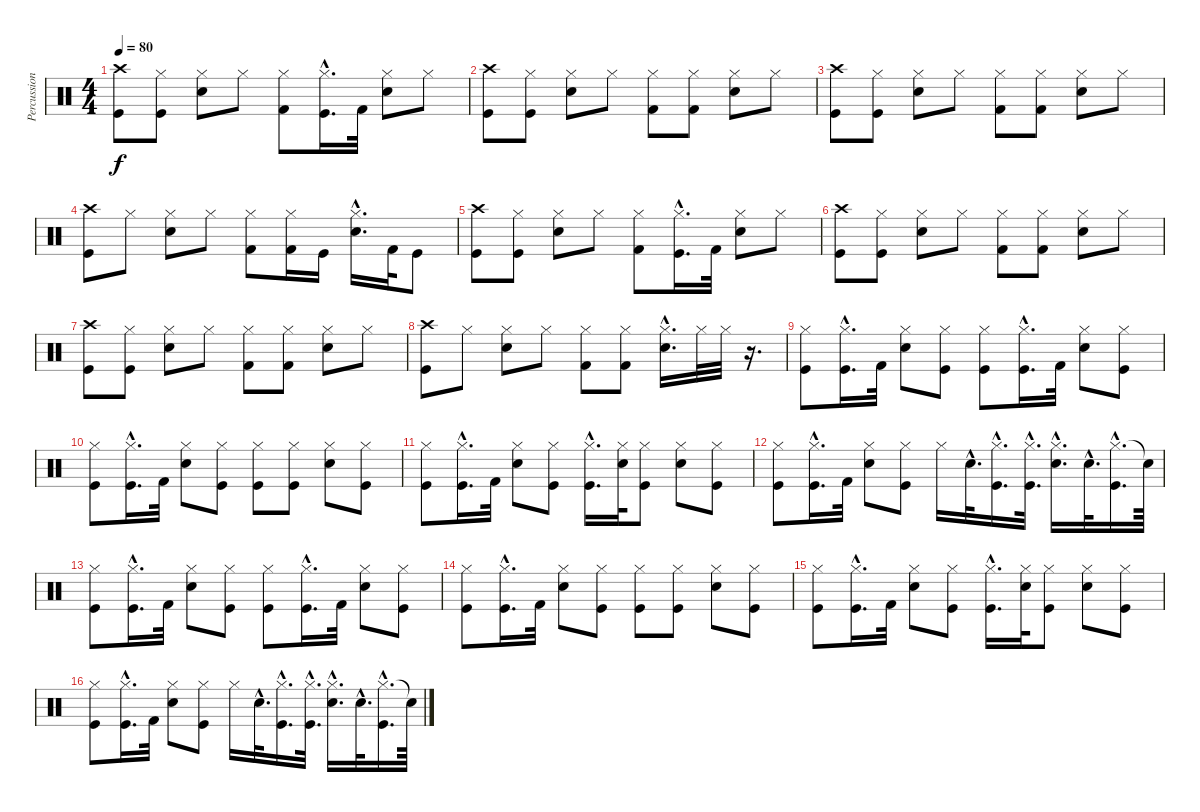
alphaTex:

\track ("Percussions" "Percussion") {instrument percussion}
\staff {score}
\articulation defaults
\ts (4 4)
\tempo 80
\clef neutral
\ks c
("Crash high (hit)" "Kick (hit)").8{dy f} ("Hi-Hat (closed)" "Kick (hit)").8 ("Hi-Hat (closed)" "Snare (hit) 2").8 "Hi-Hat (closed)".8 ("Hi-Hat (closed)" "Kick (hit) 2").8 ("Hi-Hat (closed)"{hac} "Kick (hit)"{hac}).16{d} "Kick (hit) 2".32 ("Hi-Hat (closed)" "Snare (hit) 2").8 "Hi-Hat (closed)".8 |
("Crash high (hit)" "Kick (hit)").8 ("Hi-Hat (closed)" "Kick (hit)").8 ("Hi-Hat (closed)" "Snare (hit) 2").8 "Hi-Hat (closed)".8 ("Hi-Hat (closed)" "Kick (hit) 2").8 ("Hi-Hat (closed)" "Kick (hit) 2").8 ("Hi-Hat (closed)" "Snare (hit) 2").8 "Hi-Hat (closed)".8 |
("Crash high (hit)" "Kick (hit)").8 ("Hi-Hat (closed)" "Kick (hit)").8 ("Hi-Hat (closed)" "Snare (hit) 2").8 "Hi-Hat (closed)".8 ("Hi-Hat (closed)" "Kick (hit) 2").8 ("Hi-Hat (closed)" "Kick (hit) 2").8 ("Hi-Hat (closed)" "Snare (hit) 2").8 "Hi-Hat (closed)".8 |
("Crash high (hit)" "Kick (hit)").8 "Hi-Hat (closed)".8 ("Hi-Hat (closed)" "Snare (hit) 2").8 "Hi-Hat (closed)".8 ("Hi-Hat (closed)" "Kick (hit) 2").8 ("Hi-Hat (closed)" "Kick (hit) 2").16 "Kick (hit)".16 ("Hi-Hat (closed)"{hac} "Snare (hit) 2"{hac}).16{d} "Kick (hit) 2".32 "Kick (hit)".8 |
("Crash high (hit)" "Kick (hit)").8 ("Hi-Hat (closed)" "Kick (hit)").8 ("Hi-Hat (closed)" "Snare (hit) 2").8 "Hi-Hat (closed)".8 ("Hi-Hat (closed)" "Kick (hit) 2").8 ("Hi-Hat (closed)"{hac} "Kick (hit)"{hac}).16{d} "Kick (hit) 2".32 ("Hi-Hat (closed)" "Snare (hit) 2").8 "Hi-Hat (closed)".8 |
("Crash high (hit)" "Kick (hit)").8 ("Hi-Hat (closed)" "Kick (hit)").8 ("Hi-Hat (closed)" "Snare (hit) 2").8 "Hi-Hat (closed)".8 ("Hi-Hat (closed)" "Kick (hit) 2").8 ("Hi-Hat (closed)" "Kick (hit) 2").8 ("Hi-Hat (closed)" "Snare (hit) 2").8 "Hi-Hat (closed)".8 |
("Crash high (hit)" "Kick (hit)").8 ("Hi-Hat (closed)" "Kick (hit)").8 ("Hi-Hat (closed)" "Snare (hit) 2").8 "Hi-Hat (closed)".8 ("Hi-Hat (closed)" "Kick (hit) 2").8 ("Hi-Hat (closed)" "Kick (hit) 2").8 ("Hi-Hat (closed)" "Snare (hit) 2").8 "Hi-Hat (closed)".8 |
("Crash high (hit)" "Kick (hit)").8 "Hi-Hat (closed)".8 ("Hi-Hat (closed)" "Snare (hit) 2").8 "Hi-Hat (closed)".8 ("Hi-Hat (closed)" "Kick (hit) 2").8 ("Hi-Hat (closed)" "Kick (hit) 2").8 ("Hi-Hat (closed)"{hac} "Snare (hit) 2"{hac}).16{d} "Hi-Hat (closed)".32 "Hi-Hat (closed)".32 r.16{d} |
("Hi-Hat (closed)" "Kick (hit)").8 ("Hi-Hat (closed)"{hac} "Kick (hit)"{hac}).16{d} "Kick (hit) 2".32 ("Hi-Hat (closed)" "Snare (hit) 2").8 ("Hi-Hat (closed)" "Kick (hit)").8 ("Hi-Hat (closed)" "Kick (hit)").8 ("Hi-Hat (closed)"{hac} "Kick (hit)"{hac}).16{d} "Kick (hit) 2".32 ("Hi-Hat (closed)" "Snare (hit) 2").8 ("Hi-Hat (closed)" "Kick (hit)").8 |
("Hi-Hat (closed)" "Kick (hit)").8 ("Hi-Hat (closed)"{hac} "Kick (hit)"{hac}).16{d} "Kick (hit) 2".32 ("Hi-Hat (closed)" "Snare (hit) 2").8 ("Hi-Hat (closed)" "Kick (hit)").8 ("Hi-Hat (closed)" "Kick (hit)").8 ("Hi-Hat (closed)" "Kick (hit)").8 ("Hi-Hat (closed)" "Snare (hit) 2").8 ("Hi-Hat (closed)" "Kick (hit)").8 |
("Hi-Hat (closed)" "Kick (hit)").8 ("Hi-Hat (closed)"{hac} "Kick (hit)"{hac}).16{d} "Kick (hit) 2".32 ("Hi-Hat (closed)" "Snare (hit) 2").8 ("Hi-Hat (closed)" "Kick (hit)").8 ("Hi-Hat (closed)"{hac} "Kick (hit)"{hac}).16{d} ("Hi-Hat (closed)" "Snare (hit) 2").32 ("Hi-Hat (closed)" "Kick (hit)").8 ("Hi-Hat (closed)" "Snare (hit) 2").8 ("Hi-Hat (closed)" "Kick (hit)").8 |
("Hi-Hat (closed)" "Kick (hit)").8 ("Hi-Hat (closed)"{hac} "Kick (hit)"{hac}).16{d} "Kick (hit) 2".32 ("Hi-Hat (closed)" "Snare (hit) 2").8 ("Hi-Hat (closed)" "Kick (hit)").8 "Hi-Hat (closed)".16 "Snare (hit) 2"{hac}.32{d} ("Hi-Hat (closed)"{hac} "Kick (hit)"{hac}).16{d} ("Hi-Hat (closed)"{hac} "Kick (hit)"{hac}).32{d} ("Hi-Hat (closed)"{hac} "Snare (hit) 2"{hac}).16{d} "Snare (hit) 2"{hac}.32{d} ("Hi-Hat (closed)"{hac} "Kick (hit)"{hac}).16{d} "Snare (hit)"{t}.64 |
("Hi-Hat (closed)" "Kick (hit)").8 ("Hi-Hat (closed)"{hac} "Kick (hit)"{hac}).16{d} "Kick (hit) 2".32 ("Hi-Hat (closed)" "Snare (hit) 2").8 ("Hi-Hat (closed)" "Kick (hit)").8 ("Hi-Hat (closed)" "Kick (hit)").8 ("Hi-Hat (closed)"{hac} "Kick (hit)"{hac}).16{d} "Kick (hit) 2".32 ("Hi-Hat (closed)" "Snare (hit) 2").8 ("Hi-Hat (closed)" "Kick (hit)").8 |
("Hi-Hat (closed)" "Kick (hit)").8 ("Hi-Hat (closed)"{hac} "Kick (hit)"{hac}).16{d} "Kick (hit) 2".32 ("Hi-Hat (closed)" "Snare (hit) 2").8 ("Hi-Hat (closed)" "Kick (hit)").8 ("Hi-Hat (closed)" "Kick (hit)").8 ("Hi-Hat (closed)" "Kick (hit)").8 ("Hi-Hat (closed)" "Snare (hit) 2").8 ("Hi-Hat (closed)" "Kick (hit)").8 |
("Hi-Hat (closed)" "Kick (hit)").8 ("Hi-Hat (closed)"{hac} "Kick (hit)"{hac}).16{d} "Kick (hit) 2".32 ("Hi-Hat (closed)" "Snare (hit) 2").8 ("Hi-Hat (closed)" "Kick (hit)").8 ("Hi-Hat (closed)"{hac} "Kick (hit)"{hac}).16{d} ("Hi-Hat (closed)" "Snare (hit) 2").32 ("Hi-Hat (closed)" "Kick (hit)").8 ("Hi-Hat (closed)" "Snare (hit) 2").8 ("Hi-Hat (closed)" "Kick (hit)").8 |
("Hi-Hat (closed)" "Kick (hit)").8 ("Hi-Hat (closed)"{hac} "Kick (hit)"{hac}).16{d} "Kick (hit) 2".32 ("Hi-Hat (closed)" "Snare (hit) 2").8 ("Hi-Hat (closed)" "Kick (hit)").8 "Hi-Hat (closed)".16 "Snare (hit) 2"{hac}.32{d} ("Hi-Hat (closed)"{hac} "Kick (hit)"{hac}).16{d} ("Hi-Hat (closed)"{hac} "Kick (hit)"{hac}).32{d} ("Hi-Hat (closed)"{hac} "Snare (hit) 2"{hac}).16{d} "Snare (hit) 2"{hac}.32{d} ("Hi-Hat (closed)"{hac} "Kick (hit)"{hac}).16{d} "Snare (hit)"{t}.64
